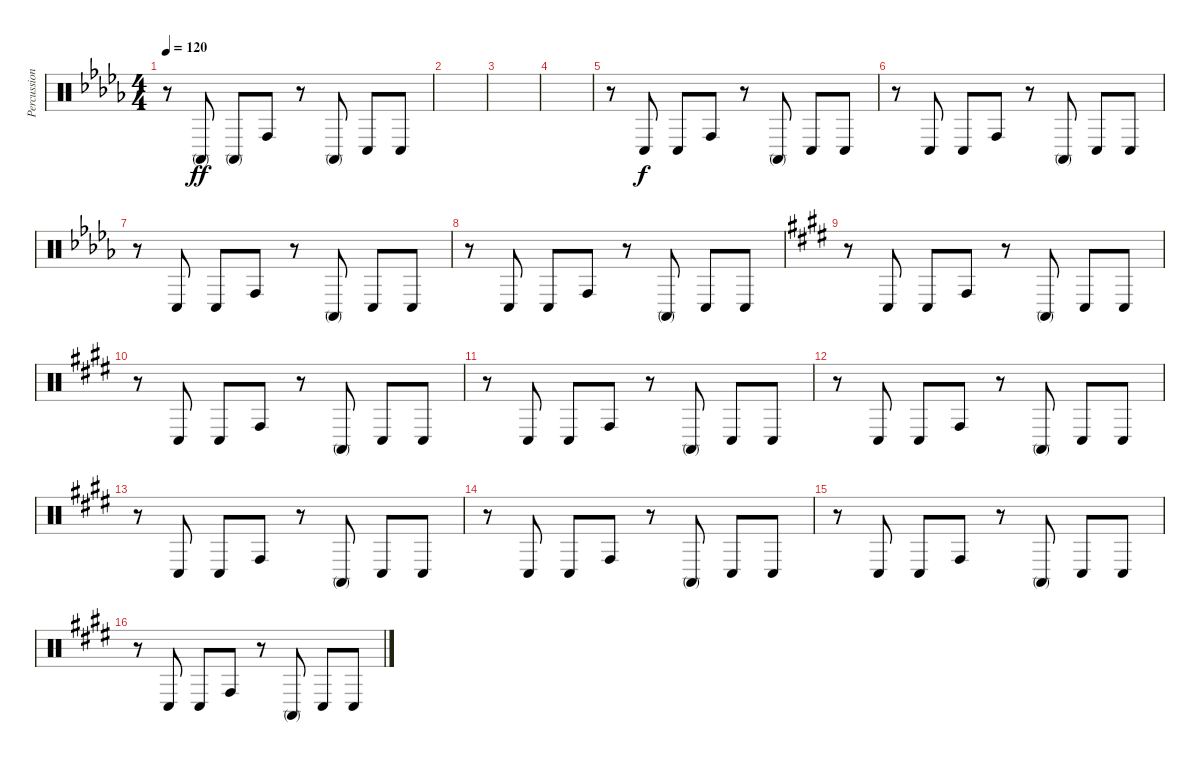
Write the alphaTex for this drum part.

\track ("Percussion" "Percussion") {instrument percussion}
\staff {score}
\articulation defaults
\ts (4 4)
\tempo 120
\clef neutral
\ks db
r.8{dy ff} "Conga high (mute)".8 "Conga high (mute)".8 "Conga high (hit)".8 r.8 "Conga high (mute)".8 "Conga low (hit)".8 "Conga low (hit)".8 |
|
|
|
r.8 "Conga low (hit)".8{dy f} "Conga low (hit)".8 "Conga high (hit)".8 r.8 "Conga high (mute)".8 "Conga low (hit)".8 "Conga low (hit)".8 |
r.8 "Conga low (hit)".8 "Conga low (hit)".8 "Conga high (hit)".8 r.8 "Conga high (mute)".8 "Conga low (hit)".8 "Conga low (hit)".8 |
r.8 "Conga low (hit)".8 "Conga low (hit)".8 "Conga high (hit)".8 r.8 "Conga high (mute)".8 "Conga low (hit)".8 "Conga low (hit)".8 |
r.8 "Conga low (hit)".8 "Conga low (hit)".8 "Conga high (hit)".8 r.8 "Conga high (mute)".8 "Conga low (hit)".8 "Conga low (hit)".8 |
\ks e
r.8 "Conga low (hit)".8 "Conga low (hit)".8 "Conga high (hit)".8 r.8 "Conga high (mute)".8 "Conga low (hit)".8 "Conga low (hit)".8 |
r.8 "Conga low (hit)".8 "Conga low (hit)".8 "Conga high (hit)".8 r.8 "Conga high (mute)".8 "Conga low (hit)".8 "Conga low (hit)".8 |
r.8 "Conga low (hit)".8 "Conga low (hit)".8 "Conga high (hit)".8 r.8 "Conga high (mute)".8 "Conga low (hit)".8 "Conga low (hit)".8 |
r.8 "Conga low (hit)".8 "Conga low (hit)".8 "Conga high (hit)".8 r.8 "Conga high (mute)".8 "Conga low (hit)".8 "Conga low (hit)".8 |
r.8 "Conga low (hit)".8 "Conga low (hit)".8 "Conga high (hit)".8 r.8 "Conga high (mute)".8 "Conga low (hit)".8 "Conga low (hit)".8 |
r.8 "Conga low (hit)".8 "Conga low (hit)".8 "Conga high (hit)".8 r.8 "Conga high (mute)".8 "Conga low (hit)".8 "Conga low (hit)".8 |
r.8 "Conga low (hit)".8 "Conga low (hit)".8 "Conga high (hit)".8 r.8 "Conga high (mute)".8 "Conga low (hit)".8 "Conga low (hit)".8 |
r.8 "Conga low (hit)".8 "Conga low (hit)".8 "Conga high (hit)".8 r.8 "Conga high (mute)".8 "Conga low (hit)".8 "Conga low (hit)".8
